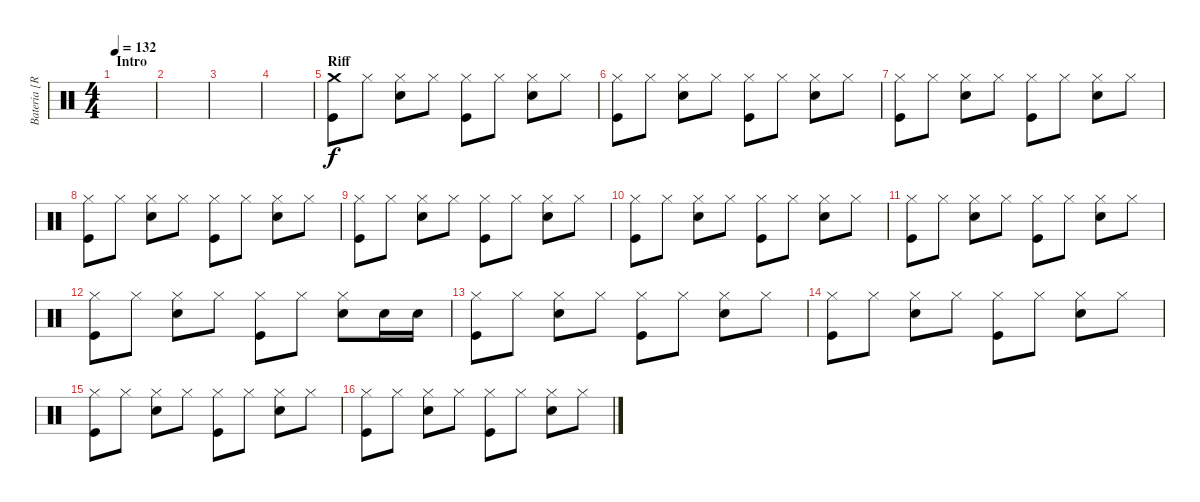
\track ("Bateria [Ricardo Confessori]" "Bateria [R") {instrument percussion}
\staff {score}
\articulation defaults
\ts (4 4)
\section ("" "Intro")
\tempo 132
\clef neutral
\ks c
|
|
|
|
\section ("" "Riff")
("Crash medium (hit)" "Kick (hit)").8 "Hi-Hat (closed)".8 ("Hi-Hat (closed)" "Electric Snare (hit)").8 "Hi-Hat (closed)".8 ("Hi-Hat (closed)" "Kick (hit)").8 "Hi-Hat (closed)".8 ("Hi-Hat (closed)" "Electric Snare (hit)").8 "Hi-Hat (closed)".8 |
("Hi-Hat (closed)" "Kick (hit)").8 "Hi-Hat (closed)".8 ("Hi-Hat (closed)" "Electric Snare (hit)").8 "Hi-Hat (closed)".8 ("Hi-Hat (closed)" "Kick (hit)").8 "Hi-Hat (closed)".8 ("Hi-Hat (closed)" "Electric Snare (hit)").8 "Hi-Hat (closed)".8 |
("Hi-Hat (closed)" "Kick (hit)").8 "Hi-Hat (closed)".8 ("Hi-Hat (closed)" "Electric Snare (hit)").8 "Hi-Hat (closed)".8 ("Hi-Hat (closed)" "Kick (hit)").8 "Hi-Hat (closed)".8 ("Hi-Hat (closed)" "Electric Snare (hit)").8 "Hi-Hat (closed)".8 |
("Hi-Hat (closed)" "Kick (hit)").8 "Hi-Hat (closed)".8 ("Hi-Hat (closed)" "Electric Snare (hit)").8 "Hi-Hat (closed)".8 ("Hi-Hat (closed)" "Kick (hit)").8 "Hi-Hat (closed)".8 ("Hi-Hat (closed)" "Electric Snare (hit)").8 "Hi-Hat (closed)".8 |
("Hi-Hat (closed)" "Kick (hit)").8 "Hi-Hat (closed)".8 ("Hi-Hat (closed)" "Electric Snare (hit)").8 "Hi-Hat (closed)".8 ("Hi-Hat (closed)" "Kick (hit)").8 "Hi-Hat (closed)".8 ("Hi-Hat (closed)" "Electric Snare (hit)").8 "Hi-Hat (closed)".8 |
("Hi-Hat (closed)" "Kick (hit)").8 "Hi-Hat (closed)".8 ("Hi-Hat (closed)" "Electric Snare (hit)").8 "Hi-Hat (closed)".8 ("Hi-Hat (closed)" "Kick (hit)").8 "Hi-Hat (closed)".8 ("Hi-Hat (closed)" "Electric Snare (hit)").8 "Hi-Hat (closed)".8 |
("Hi-Hat (closed)" "Kick (hit)").8 "Hi-Hat (closed)".8 ("Hi-Hat (closed)" "Electric Snare (hit)").8 "Hi-Hat (closed)".8 ("Hi-Hat (closed)" "Kick (hit)").8 "Hi-Hat (closed)".8 ("Hi-Hat (closed)" "Electric Snare (hit)").8 "Hi-Hat (closed)".8 |
("Hi-Hat (closed)" "Kick (hit)").8 "Hi-Hat (closed)".8 ("Hi-Hat (closed)" "Electric Snare (hit)").8 "Hi-Hat (closed)".8 ("Hi-Hat (closed)" "Kick (hit)").8 "Hi-Hat (closed)".8 ("Hi-Hat (closed)" "Electric Snare (hit)").8 "Electric Snare (hit)".16 "Electric Snare (hit)".16 |
("Hi-Hat (closed)" "Kick (hit)").8 "Hi-Hat (closed)".8 ("Hi-Hat (closed)" "Electric Snare (hit)").8 "Hi-Hat (closed)".8 ("Hi-Hat (closed)" "Kick (hit)").8 "Hi-Hat (closed)".8 ("Hi-Hat (closed)" "Electric Snare (hit)").8 "Hi-Hat (closed)".8 |
("Hi-Hat (closed)" "Kick (hit)").8 "Hi-Hat (closed)".8 ("Hi-Hat (closed)" "Electric Snare (hit)").8 "Hi-Hat (closed)".8 ("Hi-Hat (closed)" "Kick (hit)").8 "Hi-Hat (closed)".8 ("Hi-Hat (closed)" "Electric Snare (hit)").8 "Hi-Hat (closed)".8 |
("Hi-Hat (closed)" "Kick (hit)").8 "Hi-Hat (closed)".8 ("Hi-Hat (closed)" "Electric Snare (hit)").8 "Hi-Hat (closed)".8 ("Hi-Hat (closed)" "Kick (hit)").8 "Hi-Hat (closed)".8 ("Hi-Hat (closed)" "Electric Snare (hit)").8 "Hi-Hat (closed)".8 |
("Hi-Hat (closed)" "Kick (hit)").8 "Hi-Hat (closed)".8 ("Hi-Hat (closed)" "Electric Snare (hit)").8 "Hi-Hat (closed)".8 ("Hi-Hat (closed)" "Kick (hit)").8 "Hi-Hat (closed)".8 ("Hi-Hat (closed)" "Electric Snare (hit)").8 "Hi-Hat (closed)".8
